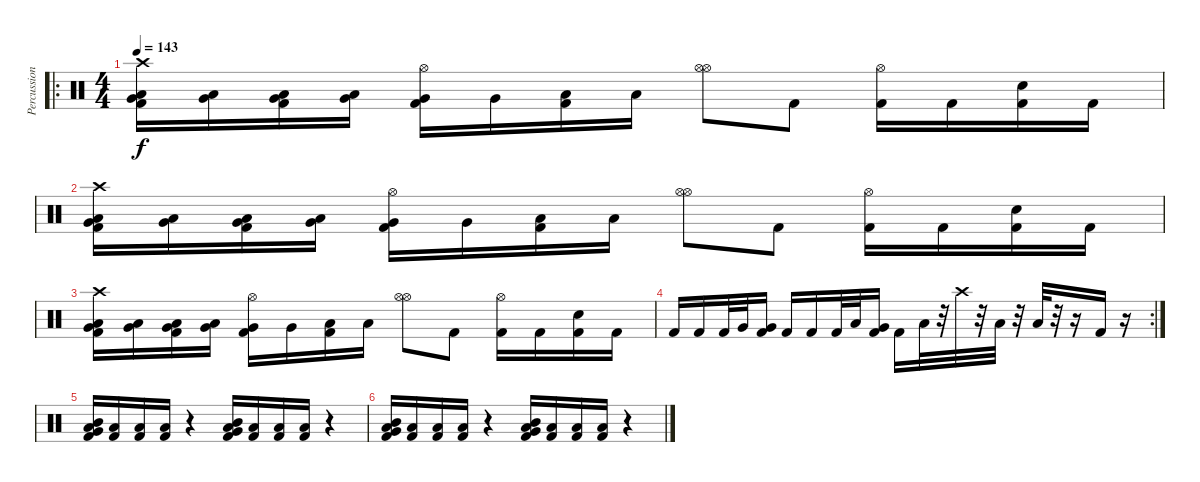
\track ("Percussions" "Percussion") {instrument percussion}
\staff {score}
\articulation defaults
\ro
\ts (4 4)
\tempo 143
\clef neutral
\ks c
("Crash high (hit)" "Very Low Tom (hit)" "Low Floor Tom (hit)" "Kick (hit) 2").16{dy f} ("Very Low Tom (hit)" "Low Floor Tom (hit)").16 ("Very Low Tom (hit)" "Low Floor Tom (hit)" "Kick (hit) 2").16 ("Very Low Tom (hit)" "Low Floor Tom (hit)").16 ("Hi-Hat (open)" "Very Low Tom (hit)" "Kick (hit) 2").16 "Very Low Tom (hit)".16 ("Low Floor Tom (hit)" "Kick (hit) 2").16 "Low Floor Tom (hit)".16 ("Hi-Hat (open)" "Hi-Hat (open)").8 "Kick (hit) 2".8 ("Hi-Hat (open)" "Kick (hit) 2").16 "Kick (hit) 2".16 ("Snare (hit) 2" "Kick (hit) 2").16 "Kick (hit) 2".16 |
("Crash high (hit)" "Very Low Tom (hit)" "Low Floor Tom (hit)" "Kick (hit) 2").16 ("Very Low Tom (hit)" "Low Floor Tom (hit)").16 ("Very Low Tom (hit)" "Low Floor Tom (hit)" "Kick (hit) 2").16 ("Very Low Tom (hit)" "Low Floor Tom (hit)").16 ("Hi-Hat (open)" "Very Low Tom (hit)" "Kick (hit) 2").16 "Very Low Tom (hit)".16 ("Low Floor Tom (hit)" "Kick (hit) 2").16 "Low Floor Tom (hit)".16 ("Hi-Hat (open)" "Hi-Hat (open)").8 "Kick (hit) 2".8 ("Hi-Hat (open)" "Kick (hit) 2").16 "Kick (hit) 2".16 ("Snare (hit) 2" "Kick (hit) 2").16 "Kick (hit) 2".16 |
("Crash high (hit)" "Very Low Tom (hit)" "Low Floor Tom (hit)" "Kick (hit) 2").16 ("Very Low Tom (hit)" "Low Floor Tom (hit)").16 ("Very Low Tom (hit)" "Low Floor Tom (hit)" "Kick (hit) 2").16 ("Very Low Tom (hit)" "Low Floor Tom (hit)").16 ("Hi-Hat (open)" "Very Low Tom (hit)" "Kick (hit) 2").16 "Very Low Tom (hit)".16 ("Low Floor Tom (hit)" "Kick (hit) 2").16 "Low Floor Tom (hit)".16 ("Hi-Hat (open)" "Hi-Hat (open)").8 "Kick (hit) 2".8 ("Hi-Hat (open)" "Kick (hit) 2").16 "Kick (hit) 2".16 ("Snare (hit) 2" "Kick (hit) 2").16 "Kick (hit) 2".16 |
\rc 2 "Kick (hit) 2".16 "Kick (hit) 2".16 "Kick (hit) 2".32 "Very Low Tom (hit)".32
("Very Low Tom (hit)" "Kick (hit) 2").16 "Kick (hit) 2".16 "Kick (hit) 2".16 "Kick (hit) 2".32 "Low Floor Tom (hit)".32 ("Very Low Tom (hit)" "Kick (hit) 2").16 "Kick (hit) 2".16 "Low Floor Tom (hit)".32 r.32 "Crash high (hit)".32 r.32 "Low Floor Tom (hit)".32 r.32 "Low Tom (hit)".32 r.32 r.16 "Kick (hit) 2".16 r.16 |
("Mid Tom (hit)" "Low Floor Tom (hit)" "Very Low Tom (hit)" "Kick (hit) 2").16 ("Low Floor Tom (hit)" "Kick (hit) 2").16 ("Low Floor Tom (hit)" "Kick (hit) 2").16 ("Low Floor Tom (hit)" "Kick (hit) 2").16 r.4 ("Mid Tom (hit)" "Low Floor Tom (hit)" "Very Low Tom (hit)" "Kick (hit) 2").16 ("Low Floor Tom (hit)" "Kick (hit) 2").16 ("Low Floor Tom (hit)" "Kick (hit) 2").16 ("Low Floor Tom (hit)" "Kick (hit) 2").16 r.4 |
("Mid Tom (hit)" "Low Floor Tom (hit)" "Very Low Tom (hit)" "Kick (hit) 2").16 ("Low Floor Tom (hit)" "Kick (hit) 2").16 ("Low Floor Tom (hit)" "Kick (hit) 2").16 ("Low Floor Tom (hit)" "Kick (hit) 2").16 r.4 ("Mid Tom (hit)" "Low Floor Tom (hit)" "Very Low Tom (hit)" "Kick (hit) 2").16 ("Low Floor Tom (hit)" "Kick (hit) 2").16 ("Low Floor Tom (hit)" "Kick (hit) 2").16 ("Low Floor Tom (hit)" "Kick (hit) 2").16 r.4
